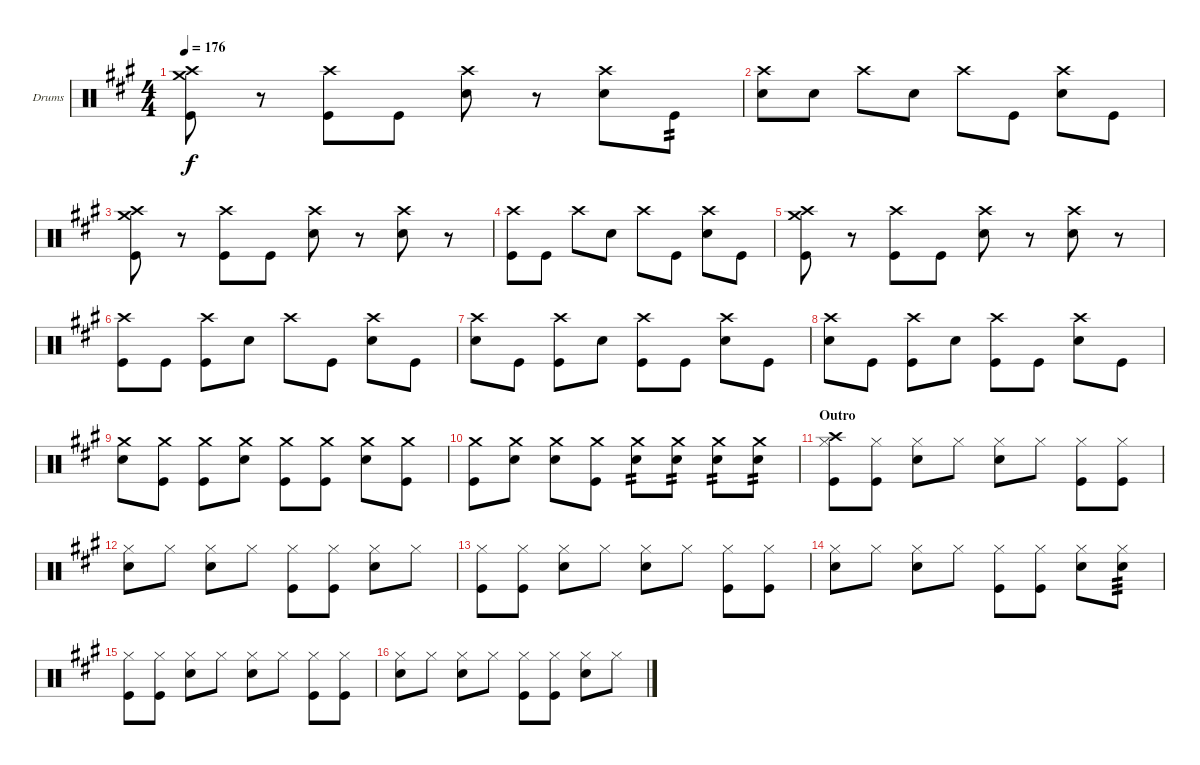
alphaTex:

\defaultSystemsLayout 4
\bracketExtendMode groupsimilarinstruments
\firstSystemTrackNameOrientation horizontal
\otherSystemsTrackNameOrientation horizontal
\track ("Drumkit" "Drums") {instrument percussion}
\staff {score}
\articulation defaults
\ts (4 4)
\tempo 176
\clef neutral
\scale
0.333333
\ks a
("Crash high (hit)" "Crash medium (hit)" "Kick (hit)").8{dy f} r.8 ("Crash high (hit)" "Kick (hit)").8 "Kick (hit)".8 ("Crash high (hit)" "Snare (hit) 2").8 r.8 ("Crash high (hit)" "Snare (hit) 2").8 "Kick (hit)".8{tp 2} |
\scale
0.333333 ("Crash high (hit)" "Snare (hit) 2").8 "Snare (hit) 2".8 "Crash high (hit)".8 "Snare (hit) 2".8 "Crash high (hit)".8 "Kick (hit)".8 ("Crash high (hit)" "Snare (hit) 2").8 "Kick (hit)".8 |
\scale
0.333333 ("Crash high (hit)" "Crash medium (hit)" "Kick (hit)").8 r.8 ("Crash high (hit)" "Kick (hit)").8 "Kick (hit)".8 ("Crash high (hit)" "Snare (hit) 2").8 r.8 ("Crash high (hit)" "Snare (hit) 2").8 r.8 |
\scale
0.333333 ("Crash high (hit)" "Kick (hit)").8 "Kick (hit)".8 "Crash high (hit)".8 "Snare (hit) 2".8 "Crash high (hit)".8 "Kick (hit)".8 ("Crash high (hit)" "Snare (hit) 2").8 "Kick (hit)".8 |
\scale
0.333333 ("Crash high (hit)" "Crash medium (hit)" "Kick (hit)").8 r.8 ("Crash high (hit)" "Kick (hit)").8 "Kick (hit)".8 ("Crash high (hit)" "Snare (hit) 2").8 r.8 ("Crash high (hit)" "Snare (hit) 2").8 r.8 |
\scale
0.333333 ("Crash high (hit)" "Kick (hit)").8 "Kick (hit)".8 ("Crash high (hit)" "Kick (hit)").8 "Snare (hit) 2".8 "Crash high (hit)".8 "Kick (hit)".8 ("Crash high (hit)" "Snare (hit) 2").8 "Kick (hit)".8 |
\scale
0.333333 ("Crash high (hit)" "Snare (hit) 2").8 "Kick (hit)".8 ("Crash high (hit)" "Kick (hit)").8 "Snare (hit) 2".8 ("Crash high (hit)" "Kick (hit)").8 "Kick (hit)".8 ("Crash high (hit)" "Snare (hit) 2").8 "Kick (hit)".8 |
\scale
0.333333 ("Crash high (hit)" "Snare (hit) 2").8 "Kick (hit)".8 ("Crash high (hit)" "Kick (hit)").8 "Snare (hit) 2".8 ("Crash high (hit)" "Kick (hit)").8 "Kick (hit)".8 ("Crash high (hit)" "Snare (hit) 2").8 "Kick (hit)".8 |
\scale
0.333333 ("Crash medium (hit)" "Snare (hit) 2").8 ("Crash medium (hit)" "Kick (hit)").8 ("Crash medium (hit)" "Kick (hit)").8 ("Crash medium (hit)" "Snare (hit) 2").8 ("Crash medium (hit)" "Kick (hit)").8 ("Crash medium (hit)" "Kick (hit)").8 ("Crash medium (hit)" "Snare (hit) 2").8 ("Crash medium (hit)" "Kick (hit)").8 |
\scale
0.333333 ("Crash medium (hit)" "Kick (hit)").8 ("Crash medium (hit)" "Snare (hit) 2").8 ("Crash medium (hit)" "Snare (hit) 2").8 ("Crash medium (hit)" "Kick (hit)").8 ("Crash medium (hit)" "Snare (hit) 2").8{tp 2} ("Crash medium (hit)" "Snare (hit) 2").8{tp 2} ("Crash medium (hit)" "Snare (hit) 2").8{tp 2} ("Crash medium (hit)" "Snare (hit) 2").8{tp 2} |
\section ("" "Outro")
\scale
0.333333 ("Hi-Hat (closed)" "Crash high (hit)" "Kick (hit)").8 ("Hi-Hat (closed)" "Kick (hit)").8 ("Hi-Hat (closed)" "Snare (hit) 2").8 "Hi-Hat (closed)".8 ("Hi-Hat (closed)" "Snare (hit) 2").8 "Hi-Hat (closed)".8 ("Hi-Hat (closed)" "Kick (hit)").8 ("Hi-Hat (closed)" "Kick (hit)").8 |
\scale
0.333333 ("Hi-Hat (closed)" "Snare (hit) 2").8 "Hi-Hat (closed)".8 ("Hi-Hat (closed)" "Snare (hit) 2").8 "Hi-Hat (closed)".8 ("Hi-Hat (closed)" "Kick (hit)").8 ("Hi-Hat (closed)" "Kick (hit)").8 ("Hi-Hat (closed)" "Snare (hit) 2").8 "Hi-Hat (closed)".8 |
\scale
0.333333 ("Hi-Hat (closed)" "Kick (hit)").8 ("Hi-Hat (closed)" "Kick (hit)").8 ("Hi-Hat (closed)" "Snare (hit) 2").8 "Hi-Hat (closed)".8 ("Hi-Hat (closed)" "Snare (hit) 2").8 "Hi-Hat (closed)".8 ("Hi-Hat (closed)" "Kick (hit)").8 ("Hi-Hat (closed)" "Kick (hit)").8 |
\scale
0.333333 ("Hi-Hat (closed)" "Snare (hit) 2").8 "Hi-Hat (closed)".8 ("Hi-Hat (closed)" "Snare (hit) 2").8 "Hi-Hat (closed)".8 ("Hi-Hat (closed)" "Kick (hit)").8 ("Hi-Hat (closed)" "Kick (hit)").8 ("Hi-Hat (closed)" "Snare (hit) 2").8 ("Hi-Hat (closed)" "Snare (hit) 2").8{tp 3} |
\scale
0.333333 ("Hi-Hat (closed)" "Kick (hit)").8 ("Hi-Hat (closed)" "Kick (hit)").8 ("Hi-Hat (closed)" "Snare (hit) 2").8 "Hi-Hat (closed)".8 ("Hi-Hat (closed)" "Snare (hit) 2").8 "Hi-Hat (closed)".8 ("Hi-Hat (closed)" "Kick (hit)").8 ("Hi-Hat (closed)" "Kick (hit)").8 |
\scale
0.333333 ("Hi-Hat (closed)" "Snare (hit) 2").8 "Hi-Hat (closed)".8 ("Hi-Hat (closed)" "Snare (hit) 2").8 "Hi-Hat (closed)".8 ("Hi-Hat (closed)" "Kick (hit)").8 ("Hi-Hat (closed)" "Kick (hit)").8 ("Hi-Hat (closed)" "Snare (hit) 2").8 "Hi-Hat (closed)".8
